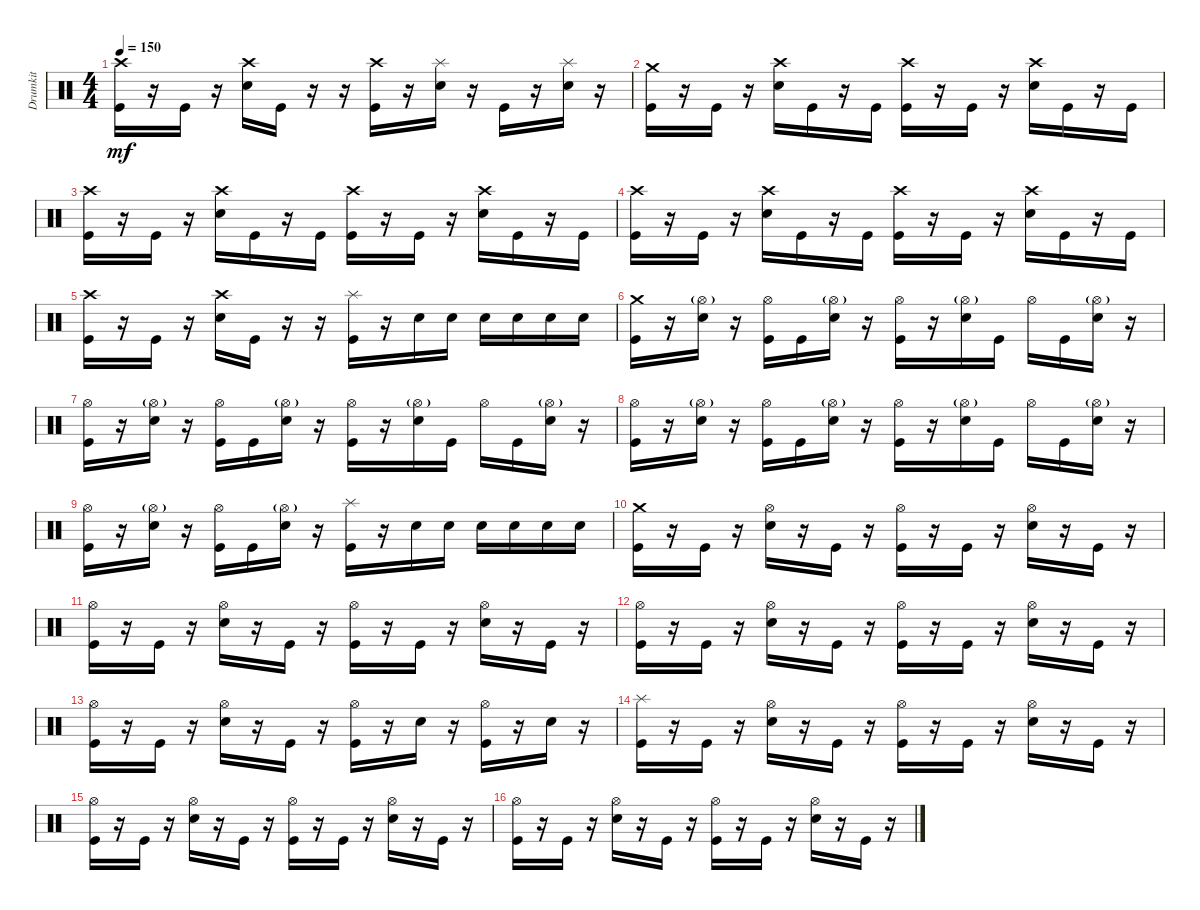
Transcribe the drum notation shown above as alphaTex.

\track ("Drumkit" "Drumkit") {instrument percussion}
\staff {score}
\articulation defaults
\ts (4 4)
\tempo 150
\clef neutral
\ks c
("Kick (hit)" "Crash high (hit)").16{dy mf} r.16 "Kick (hit)".16 r.16 ("Snare (hit) 2" "Crash high (hit)").16 "Kick (hit)".16 r.16 r.16 ("Kick (hit)" "Crash high (hit)").16 r.16 ("Snare (hit) 2" "Splash (hit)").16 r.16 "Kick (hit)".16 r.16 ("Snare (hit) 2" "Splash (hit)").16 r.16 |
("Kick (hit)" "Crash medium (hit)").16 r.16 "Kick (hit)".16 r.16 ("Snare (hit) 2" "Crash high (hit)").16 "Kick (hit)".16 r.16 "Kick (hit)".16 ("Kick (hit)" "Crash high (hit)").16 r.16 "Kick (hit)".16 r.16 ("Snare (hit) 2" "Crash high (hit)").16 "Kick (hit)".16 r.16 "Kick (hit)".16 |
("Kick (hit)" "Crash high (hit)").16 r.16 "Kick (hit)".16 r.16 ("Snare (hit) 2" "Crash high (hit)").16 "Kick (hit)".16 r.16 "Kick (hit)".16 ("Kick (hit)" "Crash high (hit)").16 r.16 "Kick (hit)".16 r.16 ("Snare (hit) 2" "Crash high (hit)").16 "Kick (hit)".16 r.16 "Kick (hit)".16 |
("Crash high (hit)" "Kick (hit)").16 r.16 "Kick (hit)".16 r.16 ("Snare (hit) 2" "Crash high (hit)").16 "Kick (hit)".16 r.16 "Kick (hit)".16 ("Kick (hit)" "Crash high (hit)").16 r.16 "Kick (hit)".16 r.16 ("Snare (hit) 2" "Crash high (hit)").16 "Kick (hit)".16 r.16 "Kick (hit)".16 |
("Kick (hit)" "Crash high (hit)").16 r.16 "Kick (hit)".16 r.16 ("Snare (hit) 2" "Crash high (hit)").16 "Kick (hit)".16 r.16 r.16 ("Kick (hit)" "Splash (hit)").16 r.16 "Snare (hit) 2".16 "Snare (hit) 2".16 "Snare (hit) 2".16 "Snare (hit) 2".16 "Snare (hit) 2".16 "Snare (hit) 2".16 |
("Kick (hit)" "Crash medium (hit)").16 r.16 ("Hi-Hat (open)"{g} "Snare (hit) 2").16 r.16 ("Hi-Hat (open)" "Kick (hit)").16 "Kick (hit)".16 ("Hi-Hat (open)"{g} "Snare (hit) 2").16 r.16 ("Hi-Hat (open)" "Kick (hit)").16 r.16 ("Hi-Hat (open)"{g} "Snare (hit) 2").16 "Kick (hit)".16 "Hi-Hat (open)".16 "Kick (hit)".16 ("Hi-Hat (open)"{g} "Snare (hit) 2").16 r.16 |
("Kick (hit)" "Hi-Hat (open)").16 r.16 ("Hi-Hat (open)"{g} "Snare (hit) 2").16 r.16 ("Hi-Hat (open)" "Kick (hit)").16 "Kick (hit)".16 ("Hi-Hat (open)"{g} "Snare (hit) 2").16 r.16 ("Hi-Hat (open)" "Kick (hit)").16 r.16 ("Hi-Hat (open)"{g} "Snare (hit) 2").16 "Kick (hit)".16 "Hi-Hat (open)".16 "Kick (hit)".16 ("Hi-Hat (open)"{g} "Snare (hit) 2").16 r.16 |
("Kick (hit)" "Hi-Hat (open)").16 r.16 ("Hi-Hat (open)"{g} "Snare (hit) 2").16 r.16 ("Hi-Hat (open)" "Kick (hit)").16 "Kick (hit)".16 ("Hi-Hat (open)"{g} "Snare (hit) 2").16 r.16 ("Hi-Hat (open)" "Kick (hit)").16 r.16 ("Hi-Hat (open)"{g} "Snare (hit) 2").16 "Kick (hit)".16 "Hi-Hat (open)".16 "Kick (hit)".16 ("Hi-Hat (open)"{g} "Snare (hit) 2").16 r.16 |
("Kick (hit)" "Hi-Hat (open)").16 r.16 ("Snare (hit) 2" "Hi-Hat (open)"{g}).16 r.16 ("Kick (hit)" "Hi-Hat (open)").16 "Kick (hit)".16 ("Snare (hit) 2" "Hi-Hat (open)"{g}).16 r.16 ("Kick (hit)" "Splash (hit)").16 r.16 "Snare (hit) 2".16 "Snare (hit) 2".16 "Snare (hit) 2".16 "Snare (hit) 2".16 "Snare (hit) 2".16 "Snare (hit) 2".16 |
("Kick (hit)" "Crash medium (hit)").16 r.16 "Kick (hit)".16 r.16 ("Snare (hit) 2" "Hi-Hat (open)").16 r.16 "Kick (hit)".16 r.16 ("Kick (hit)" "Hi-Hat (open)").16 r.16 "Kick (hit)".16 r.16 ("Snare (hit) 2" "Hi-Hat (open)").16 r.16 "Kick (hit)".16 r.16 |
("Kick (hit)" "Hi-Hat (open)").16 r.16 "Kick (hit)".16 r.16 ("Snare (hit) 2" "Hi-Hat (open)").16 r.16 "Kick (hit)".16 r.16 ("Kick (hit)" "Hi-Hat (open)").16 r.16 "Kick (hit)".16 r.16 ("Snare (hit) 2" "Hi-Hat (open)").16 r.16 "Kick (hit)".16 r.16 |
("Kick (hit)" "Hi-Hat (open)").16 r.16 "Kick (hit)".16 r.16 ("Snare (hit) 2" "Hi-Hat (open)").16 r.16 "Kick (hit)".16 r.16 ("Kick (hit)" "Hi-Hat (open)").16 r.16 "Kick (hit)".16 r.16 ("Snare (hit) 2" "Hi-Hat (open)").16 r.16 "Kick (hit)".16 r.16 |
("Kick (hit)" "Hi-Hat (open)").16 r.16 "Kick (hit)".16 r.16 ("Snare (hit) 2" "Hi-Hat (open)").16 r.16 "Kick (hit)".16 r.16 ("Kick (hit)" "Hi-Hat (open)").16 r.16 "Snare (hit) 2".16 r.16 ("Kick (hit)" "Hi-Hat (open)").16 r.16 "Snare (hit) 2".16 r.16 |
("Kick (hit)" "Splash (hit)").16 r.16 "Kick (hit)".16 r.16 ("Snare (hit) 2" "Hi-Hat (open)").16 r.16 "Kick (hit)".16 r.16 ("Kick (hit)" "Hi-Hat (open)").16 r.16 "Kick (hit)".16 r.16 ("Snare (hit) 2" "Hi-Hat (open)").16 r.16 "Kick (hit)".16 r.16 |
("Kick (hit)" "Hi-Hat (open)").16 r.16 "Kick (hit)".16 r.16 ("Snare (hit) 2" "Hi-Hat (open)").16 r.16 "Kick (hit)".16 r.16 ("Kick (hit)" "Hi-Hat (open)").16 r.16 "Kick (hit)".16 r.16 ("Snare (hit) 2" "Hi-Hat (open)").16 r.16 "Kick (hit)".16 r.16 |
("Kick (hit)" "Hi-Hat (open)").16 r.16 "Kick (hit)".16 r.16 ("Snare (hit) 2" "Hi-Hat (open)").16 r.16 "Kick (hit)".16 r.16 ("Kick (hit)" "Hi-Hat (open)").16 r.16 "Kick (hit)".16 r.16 ("Snare (hit) 2" "Hi-Hat (open)").16 r.16 "Kick (hit)".16 r.16
